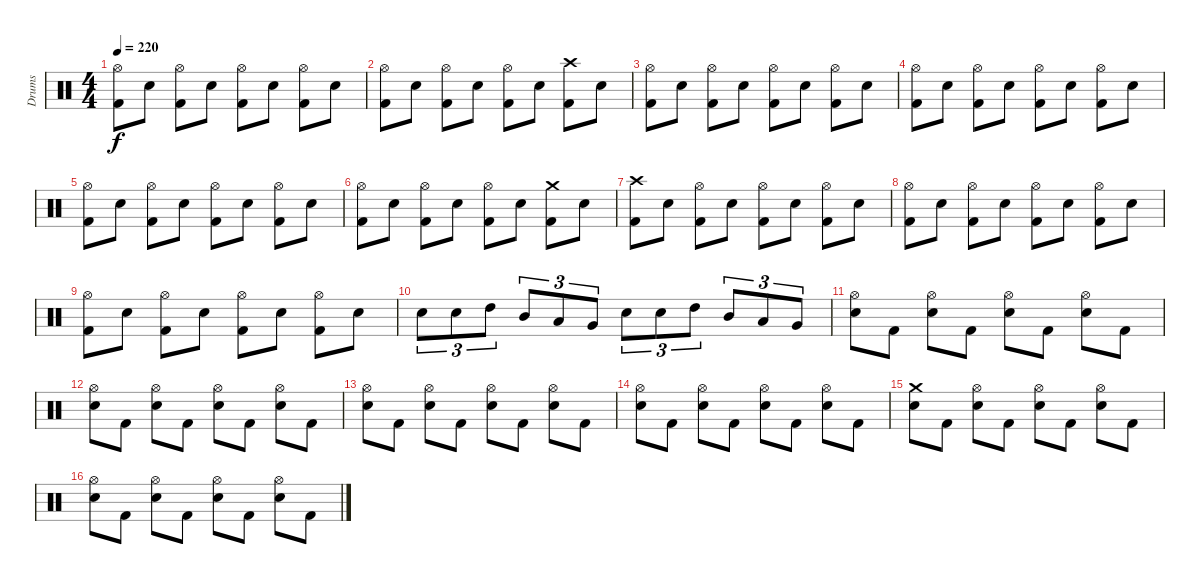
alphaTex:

\track ("Drums" "Drums") {instrument percussion}
\staff {score}
\articulation defaults
\ts (4 4)
\tempo 220
\clef neutral
\ks c
("Kick (hit) 2" "Hi-Hat (open)").8{dy f} "Electric Snare (hit)".8 ("Kick (hit) 2" "Hi-Hat (open)").8 "Electric Snare (hit)".8 ("Kick (hit) 2" "Hi-Hat (open)").8 "Electric Snare (hit)".8 ("Kick (hit) 2" "Hi-Hat (open)").8 "Electric Snare (hit)".8 |
("Kick (hit) 2" "Hi-Hat (open)").8 "Electric Snare (hit)".8 ("Kick (hit) 2" "Hi-Hat (open)").8 "Electric Snare (hit)".8 ("Kick (hit) 2" "Hi-Hat (open)").8 "Electric Snare (hit)".8 ("Kick (hit) 2" "Crash high (hit)").8 "Electric Snare (hit)".8 |
("Kick (hit) 2" "Hi-Hat (open)").8 "Electric Snare (hit)".8 ("Kick (hit) 2" "Hi-Hat (open)").8 "Electric Snare (hit)".8 ("Kick (hit) 2" "Hi-Hat (open)").8 "Electric Snare (hit)".8 ("Kick (hit) 2" "Hi-Hat (open)").8 "Electric Snare (hit)".8 |
("Kick (hit) 2" "Hi-Hat (open)").8 "Electric Snare (hit)".8 ("Kick (hit) 2" "Hi-Hat (open)").8 "Electric Snare (hit)".8 ("Kick (hit) 2" "Hi-Hat (open)").8 "Electric Snare (hit)".8 ("Kick (hit) 2" "Hi-Hat (open)").8 "Electric Snare (hit)".8 |
("Kick (hit) 2" "Hi-Hat (open)").8 "Electric Snare (hit)".8 ("Kick (hit) 2" "Hi-Hat (open)").8 "Electric Snare (hit)".8 ("Kick (hit) 2" "Hi-Hat (open)").8 "Electric Snare (hit)".8 ("Kick (hit) 2" "Hi-Hat (open)").8 "Electric Snare (hit)".8 |
("Kick (hit) 2" "Hi-Hat (open)").8 "Electric Snare (hit)".8 ("Kick (hit) 2" "Hi-Hat (open)").8 "Electric Snare (hit)".8 ("Kick (hit) 2" "Hi-Hat (open)").8 "Electric Snare (hit)".8 ("Kick (hit) 2" "Crash medium (hit)").8 "Electric Snare (hit)".8 |
("Kick (hit) 2" "Crash high (hit)").8 "Electric Snare (hit)".8 ("Kick (hit) 2" "Hi-Hat (open)").8 "Electric Snare (hit)".8 ("Kick (hit) 2" "Hi-Hat (open)").8 "Electric Snare (hit)".8 ("Kick (hit) 2" "Hi-Hat (open)").8 "Electric Snare (hit)".8 |
("Kick (hit) 2" "Hi-Hat (open)").8 "Electric Snare (hit)".8 ("Kick (hit) 2" "Hi-Hat (open)").8 "Electric Snare (hit)".8 ("Kick (hit) 2" "Hi-Hat (open)").8 "Electric Snare (hit)".8 ("Kick (hit) 2" "Hi-Hat (open)").8 "Electric Snare (hit)".8 |
("Kick (hit) 2" "Hi-Hat (open)").8 "Electric Snare (hit)".8 ("Kick (hit) 2" "Hi-Hat (open)").8 "Electric Snare (hit)".8 ("Kick (hit) 2" "Hi-Hat (open)").8 "Electric Snare (hit)".8 ("Kick (hit) 2" "Hi-Hat (open)").8 "Electric Snare (hit)".8 |
"Electric Snare (hit)".8{tu (3 2)} "Electric Snare (hit)".8{tu (3 2)} "High Tom (hit)".8{tu (3 2)} "Mid Tom (hit)".8{tu (3 2)} "Low Tom (hit)".8{tu (3 2)} "Very Low Tom (hit)".8{tu (3 2)} "Electric Snare (hit)".8{tu (3 2)} "Electric Snare (hit)".8{tu (3 2)} "High Tom (hit)".8{tu (3 2)} "Mid Tom (hit)".8{tu (3 2)} "Low Tom (hit)".8{tu (3 2)} "Very Low Tom (hit)".8{tu (3 2)} |
("Electric Snare (hit)" "Hi-Hat (open)").8 "Kick (hit) 2".8 ("Electric Snare (hit)" "Hi-Hat (open)").8 "Kick (hit) 2".8 ("Electric Snare (hit)" "Hi-Hat (open)").8 "Kick (hit) 2".8 ("Electric Snare (hit)" "Hi-Hat (open)").8 "Kick (hit) 2".8 |
("Electric Snare (hit)" "Hi-Hat (open)").8 "Kick (hit) 2".8 ("Electric Snare (hit)" "Hi-Hat (open)").8 "Kick (hit) 2".8 ("Electric Snare (hit)" "Hi-Hat (open)").8 "Kick (hit) 2".8 ("Electric Snare (hit)" "Hi-Hat (open)").8 "Kick (hit) 2".8 |
("Electric Snare (hit)" "Hi-Hat (open)").8 "Kick (hit) 2".8 ("Electric Snare (hit)" "Hi-Hat (open)").8 "Kick (hit) 2".8 ("Electric Snare (hit)" "Hi-Hat (open)").8 "Kick (hit) 2".8 ("Electric Snare (hit)" "Hi-Hat (open)").8 "Kick (hit) 2".8 |
("Electric Snare (hit)" "Hi-Hat (open)").8 "Kick (hit) 2".8 ("Electric Snare (hit)" "Hi-Hat (open)").8 "Kick (hit) 2".8 ("Electric Snare (hit)" "Hi-Hat (open)").8 "Kick (hit) 2".8 ("Electric Snare (hit)" "Hi-Hat (open)").8 "Kick (hit) 2".8 |
("Electric Snare (hit)" "Crash medium (hit)").8 "Kick (hit) 2".8 ("Electric Snare (hit)" "Hi-Hat (open)").8 "Kick (hit) 2".8 ("Electric Snare (hit)" "Hi-Hat (open)").8 "Kick (hit) 2".8 ("Electric Snare (hit)" "Hi-Hat (open)").8 "Kick (hit) 2".8 |
("Electric Snare (hit)" "Hi-Hat (open)").8 "Kick (hit) 2".8 ("Electric Snare (hit)" "Hi-Hat (open)").8 "Kick (hit) 2".8 ("Electric Snare (hit)" "Hi-Hat (open)").8 "Kick (hit) 2".8 ("Electric Snare (hit)" "Hi-Hat (open)").8 "Kick (hit) 2".8
